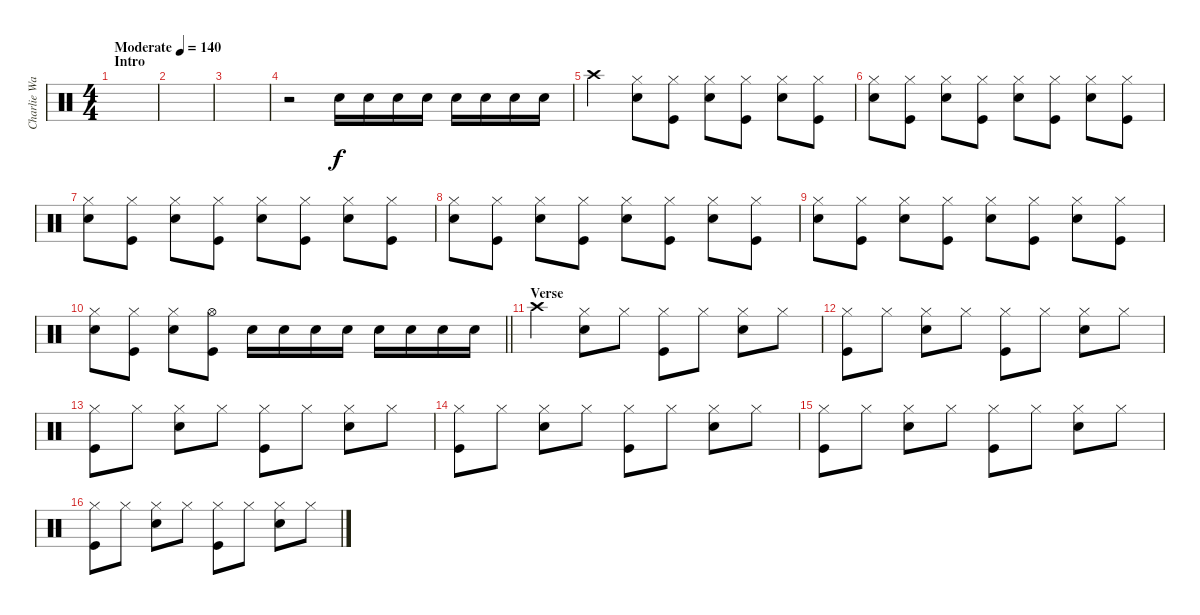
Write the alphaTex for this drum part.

\track ("Charlie Watts" "Charlie Wa") {instrument percussion}
\staff {score}
\articulation defaults
\ts (4 4)
\section ("" "Intro")
\tempo (140 "Moderate")
\clef neutral
\ks c
|
|
|
r.2 "Snare (hit) 2".16 "Snare (hit) 2".16 "Snare (hit) 2".16 "Snare (hit) 2".16 "Snare (hit) 2".16 "Snare (hit) 2".16 "Snare (hit) 2".16 "Snare (hit) 2".16 |
"Crash high (hit)".4 ("Snare (hit) 2" "Hi-Hat (closed)").8 ("Kick (hit)" "Hi-Hat (closed)").8 ("Snare (hit) 2" "Hi-Hat (closed)").8 ("Kick (hit)" "Hi-Hat (closed)").8 ("Snare (hit) 2" "Hi-Hat (closed)").8 ("Kick (hit)" "Hi-Hat (closed)").8 |
("Snare (hit) 2" "Hi-Hat (closed)").8 ("Kick (hit)" "Hi-Hat (closed)").8 ("Snare (hit) 2" "Hi-Hat (closed)").8 ("Kick (hit)" "Hi-Hat (closed)").8 ("Snare (hit) 2" "Hi-Hat (closed)").8 ("Kick (hit)" "Hi-Hat (closed)").8 ("Snare (hit) 2" "Hi-Hat (closed)").8 ("Kick (hit)" "Hi-Hat (closed)").8 |
("Snare (hit) 2" "Hi-Hat (closed)").8 ("Kick (hit)" "Hi-Hat (closed)").8 ("Snare (hit) 2" "Hi-Hat (closed)").8 ("Kick (hit)" "Hi-Hat (closed)").8 ("Snare (hit) 2" "Hi-Hat (closed)").8 ("Kick (hit)" "Hi-Hat (closed)").8 ("Snare (hit) 2" "Hi-Hat (closed)").8 ("Kick (hit)" "Hi-Hat (closed)").8 |
("Snare (hit) 2" "Hi-Hat (closed)").8 ("Kick (hit)" "Hi-Hat (closed)").8 ("Snare (hit) 2" "Hi-Hat (closed)").8 ("Kick (hit)" "Hi-Hat (closed)").8 ("Snare (hit) 2" "Hi-Hat (closed)").8 ("Kick (hit)" "Hi-Hat (closed)").8 ("Snare (hit) 2" "Hi-Hat (closed)").8 ("Kick (hit)" "Hi-Hat (closed)").8 |
("Snare (hit) 2" "Hi-Hat (closed)").8 ("Kick (hit)" "Hi-Hat (closed)").8 ("Snare (hit) 2" "Hi-Hat (closed)").8 ("Kick (hit)" "Hi-Hat (closed)").8 ("Snare (hit) 2" "Hi-Hat (closed)").8 ("Kick (hit)" "Hi-Hat (closed)").8 ("Snare (hit) 2" "Hi-Hat (closed)").8 ("Kick (hit)" "Hi-Hat (closed)").8 |
\barLineRight lightlight
("Snare (hit) 2" "Hi-Hat (closed)").8 ("Kick (hit)" "Hi-Hat (closed)").8 ("Snare (hit) 2" "Hi-Hat (closed)").8 ("Kick (hit)" "Hi-Hat (open)").8 "Snare (hit) 2".16 "Snare (hit) 2".16 "Snare (hit) 2".16 "Snare (hit) 2".16 "Snare (hit) 2".16 "Snare (hit) 2".16 "Snare (hit) 2".16 "Snare (hit) 2".16 |
\section ("" "Verse")
"Crash high (hit)".4 ("Snare (hit) 2" "Hi-Hat (closed)").8 "Hi-Hat (closed)".8 ("Kick (hit)" "Hi-Hat (closed)").8 "Hi-Hat (closed)".8 ("Snare (hit) 2" "Hi-Hat (closed)").8 "Hi-Hat (closed)".8 |
("Kick (hit)" "Hi-Hat (closed)").8 "Hi-Hat (closed)".8 ("Snare (hit) 2" "Hi-Hat (closed)").8 "Hi-Hat (closed)".8 ("Kick (hit)" "Hi-Hat (closed)").8 "Hi-Hat (closed)".8 ("Snare (hit) 2" "Hi-Hat (closed)").8 "Hi-Hat (closed)".8 |
("Kick (hit)" "Hi-Hat (closed)").8 "Hi-Hat (closed)".8 ("Snare (hit) 2" "Hi-Hat (closed)").8 "Hi-Hat (closed)".8 ("Kick (hit)" "Hi-Hat (closed)").8 "Hi-Hat (closed)".8 ("Snare (hit) 2" "Hi-Hat (closed)").8 "Hi-Hat (closed)".8 |
("Kick (hit)" "Hi-Hat (closed)").8 "Hi-Hat (closed)".8 ("Snare (hit) 2" "Hi-Hat (closed)").8 "Hi-Hat (closed)".8 ("Kick (hit)" "Hi-Hat (closed)").8 "Hi-Hat (closed)".8 ("Snare (hit) 2" "Hi-Hat (closed)").8 "Hi-Hat (closed)".8 |
("Kick (hit)" "Hi-Hat (closed)").8 "Hi-Hat (closed)".8 ("Snare (hit) 2" "Hi-Hat (closed)").8 "Hi-Hat (closed)".8 ("Kick (hit)" "Hi-Hat (closed)").8 "Hi-Hat (closed)".8 ("Snare (hit) 2" "Hi-Hat (closed)").8 "Hi-Hat (closed)".8 |
("Kick (hit)" "Hi-Hat (closed)").8 "Hi-Hat (closed)".8 ("Snare (hit) 2" "Hi-Hat (closed)").8 "Hi-Hat (closed)".8 ("Kick (hit)" "Hi-Hat (closed)").8 "Hi-Hat (closed)".8 ("Snare (hit) 2" "Hi-Hat (closed)").8 "Hi-Hat (closed)".8
